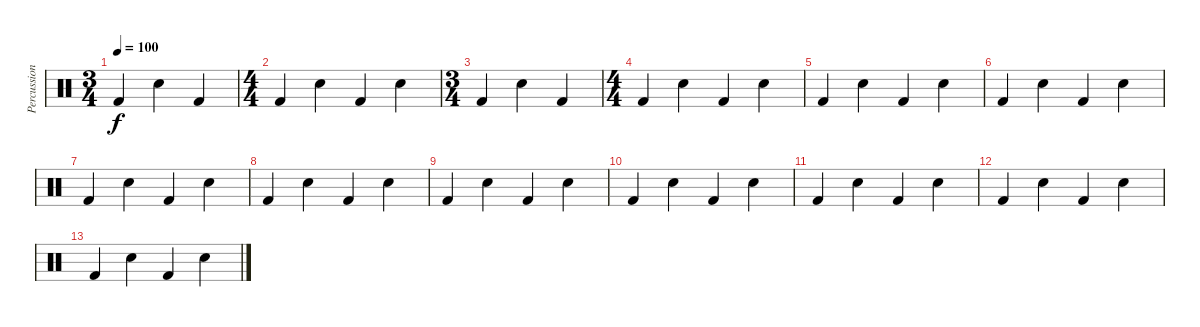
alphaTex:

\track ("Percussion" "Percussion") {instrument percussion}
\staff {score}
\articulation defaults
\ts (3 4)
\tempo 100
\clef neutral
\ks c "Kick (hit) 2".4{dy f} "Snare (hit) 2".4 "Kick (hit) 2".4
|
\ts (4 4)
"Kick (hit) 2".4 "Snare (hit) 2".4 "Kick (hit) 2".4 "Snare (hit) 2".4 |
\ts (3 4)
"Kick (hit) 2".4 "Snare (hit) 2".4 "Kick (hit) 2".4 |
\ts (4 4)
"Kick (hit) 2".4 "Snare (hit) 2".4 "Kick (hit) 2".4 "Snare (hit) 2".4 |
"Kick (hit) 2".4 "Snare (hit) 2".4 "Kick (hit) 2".4 "Snare (hit) 2".4 |
"Kick (hit) 2".4 "Snare (hit) 2".4 "Kick (hit) 2".4 "Snare (hit) 2".4 |
"Kick (hit) 2".4 "Snare (hit) 2".4 "Kick (hit) 2".4 "Snare (hit) 2".4 |
"Kick (hit) 2".4 "Snare (hit) 2".4 "Kick (hit) 2".4 "Snare (hit) 2".4 |
"Kick (hit) 2".4 "Snare (hit) 2".4 "Kick (hit) 2".4 "Snare (hit) 2".4 |
"Kick (hit) 2".4 "Snare (hit) 2".4 "Kick (hit) 2".4 "Snare (hit) 2".4 |
"Kick (hit) 2".4 "Snare (hit) 2".4 "Kick (hit) 2".4 "Snare (hit) 2".4 |
"Kick (hit) 2".4 "Snare (hit) 2".4 "Kick (hit) 2".4 "Snare (hit) 2".4 |
"Kick (hit) 2".4 "Snare (hit) 2".4 "Kick (hit) 2".4 "Snare (hit) 2".4
